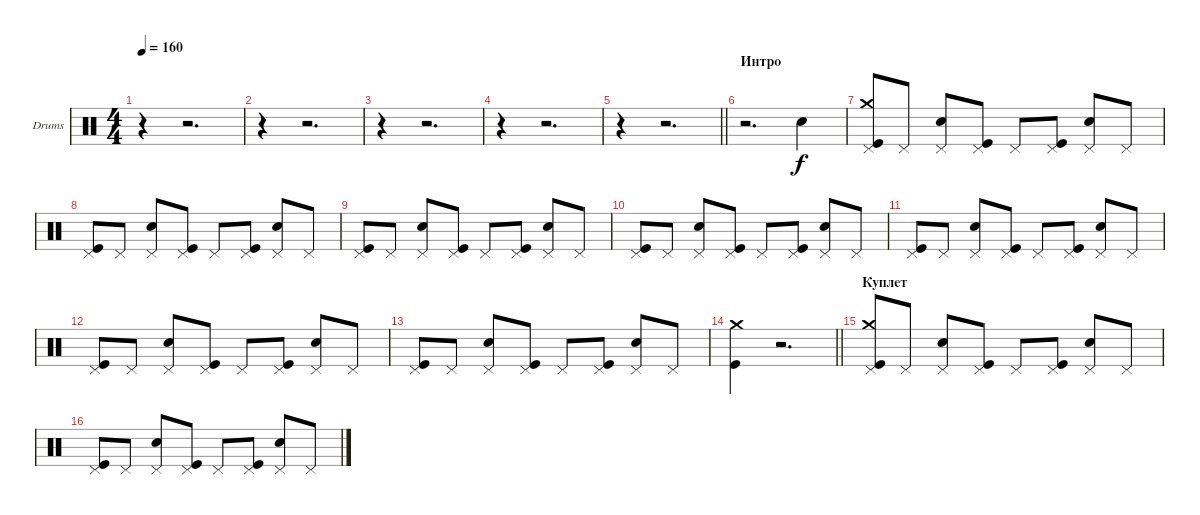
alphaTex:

\bracketExtendMode groupsimilarinstruments
\firstSystemTrackNameOrientation horizontal
\otherSystemsTrackNameOrientation horizontal
\track ("Ударные" "Drums") {instrument percussion}
\staff {score}
\articulation defaults
\ts (4 4)
\beaming (8 2 2 2 2)
\tempo 160
\clef neutral
\ks c
r.4{dy f} r.2{d} |
r.4 r.2{d} |
r.4 r.2{d} |
r.4 r.2{d} |
\barLineRight lightlight
r.4 r.2{d} |
\section ("" "Интро")
r.2{d} "Snare (hit) 2".4 |
("Pedal Hi-Hat (hit)" "Crash medium (hit)" "Kick (hit)").8 "Pedal Hi-Hat (hit)".8 ("Pedal Hi-Hat (hit)" "Snare (hit) 2").8 ("Pedal Hi-Hat (hit)" "Kick (hit)").8 "Pedal Hi-Hat (hit)".8 ("Pedal Hi-Hat (hit)" "Kick (hit)").8 ("Pedal Hi-Hat (hit)" "Snare (hit) 2").8 "Pedal Hi-Hat (hit)".8 |
("Pedal Hi-Hat (hit)" "Kick (hit)").8 "Pedal Hi-Hat (hit)".8 ("Pedal Hi-Hat (hit)" "Snare (hit) 2").8 ("Pedal Hi-Hat (hit)" "Kick (hit)").8 "Pedal Hi-Hat (hit)".8 ("Pedal Hi-Hat (hit)" "Kick (hit)").8 ("Pedal Hi-Hat (hit)" "Snare (hit) 2").8 "Pedal Hi-Hat (hit)".8 |
("Pedal Hi-Hat (hit)" "Kick (hit)").8 "Pedal Hi-Hat (hit)".8 ("Pedal Hi-Hat (hit)" "Snare (hit) 2").8 ("Pedal Hi-Hat (hit)" "Kick (hit)").8 "Pedal Hi-Hat (hit)".8 ("Pedal Hi-Hat (hit)" "Kick (hit)").8 ("Pedal Hi-Hat (hit)" "Snare (hit) 2").8 "Pedal Hi-Hat (hit)".8 |
("Pedal Hi-Hat (hit)" "Kick (hit)").8 "Pedal Hi-Hat (hit)".8 ("Pedal Hi-Hat (hit)" "Snare (hit) 2").8 ("Pedal Hi-Hat (hit)" "Kick (hit)").8 "Pedal Hi-Hat (hit)".8 ("Pedal Hi-Hat (hit)" "Kick (hit)").8 ("Pedal Hi-Hat (hit)" "Snare (hit) 2").8 "Pedal Hi-Hat (hit)".8 |
("Pedal Hi-Hat (hit)" "Kick (hit)").8 "Pedal Hi-Hat (hit)".8 ("Pedal Hi-Hat (hit)" "Snare (hit) 2").8 ("Pedal Hi-Hat (hit)" "Kick (hit)").8 "Pedal Hi-Hat (hit)".8 ("Pedal Hi-Hat (hit)" "Kick (hit)").8 ("Pedal Hi-Hat (hit)" "Snare (hit) 2").8 "Pedal Hi-Hat (hit)".8 |
("Pedal Hi-Hat (hit)" "Kick (hit)").8 "Pedal Hi-Hat (hit)".8 ("Pedal Hi-Hat (hit)" "Snare (hit) 2").8 ("Pedal Hi-Hat (hit)" "Kick (hit)").8 "Pedal Hi-Hat (hit)".8 ("Pedal Hi-Hat (hit)" "Kick (hit)").8 ("Pedal Hi-Hat (hit)" "Snare (hit) 2").8 "Pedal Hi-Hat (hit)".8 |
("Pedal Hi-Hat (hit)" "Kick (hit)").8 "Pedal Hi-Hat (hit)".8 ("Pedal Hi-Hat (hit)" "Snare (hit) 2").8 ("Pedal Hi-Hat (hit)" "Kick (hit)").8 "Pedal Hi-Hat (hit)".8 ("Pedal Hi-Hat (hit)" "Kick (hit)").8 ("Pedal Hi-Hat (hit)" "Snare (hit) 2").8 "Pedal Hi-Hat (hit)".8 |
\barLineRight lightlight
("Crash medium (hit)" "Kick (hit)").4 r.2{d} |
\section ("" "Куплет")
("Pedal Hi-Hat (hit)" "Crash medium (hit)" "Kick (hit)").8 "Pedal Hi-Hat (hit)".8 ("Pedal Hi-Hat (hit)" "Snare (hit) 2").8 ("Pedal Hi-Hat (hit)" "Kick (hit)").8 "Pedal Hi-Hat (hit)".8 ("Pedal Hi-Hat (hit)" "Kick (hit)").8 ("Pedal Hi-Hat (hit)" "Snare (hit) 2").8 "Pedal Hi-Hat (hit)".8 |
("Pedal Hi-Hat (hit)" "Kick (hit)").8 "Pedal Hi-Hat (hit)".8 ("Pedal Hi-Hat (hit)" "Snare (hit) 2").8 ("Pedal Hi-Hat (hit)" "Kick (hit)").8 "Pedal Hi-Hat (hit)".8 ("Pedal Hi-Hat (hit)" "Kick (hit)").8 ("Pedal Hi-Hat (hit)" "Snare (hit) 2").8 "Pedal Hi-Hat (hit)".8
